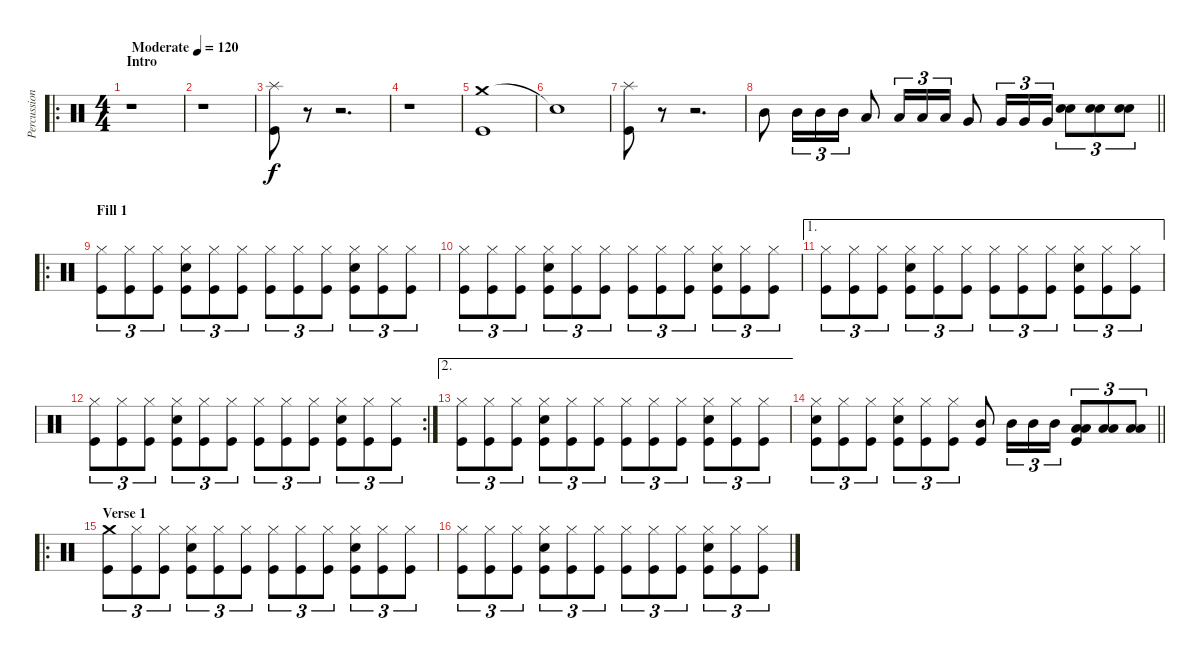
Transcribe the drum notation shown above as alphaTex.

\track ("Percussion" "Percussion") {instrument percussion}
\staff {score}
\articulation defaults
\ro
\ts (4 4)
\section ("" "Intro")
\tempo (120 "Moderate")
\clef neutral
\ks c
r.1{dy f} |
r.1 |
("Splash (hit)" "Kick (hit)").8 r.8 r.2{d} |
r.1 |
("Crash medium (hit)" "Kick (hit)").1 |
"Snare (hit)"{t}.1 |
("Splash (hit)" "Kick (hit)").8 r.8 r.2{d} |
\barLineRight lightlight "Mid Tom (hit)".8 "Mid Tom (hit)".16{tu (3 2)} "Mid Tom (hit)".16{tu (3 2)} "Mid Tom (hit)".16{tu (3 2)} "Low Tom (hit)".8 "Low Tom (hit)".16{tu (3 2)} "Low Tom (hit)".16{tu (3 2)} "Low Tom (hit)".16{tu (3 2)} "Very Low Tom (hit)".8 "Very Low Tom (hit)".16{tu (3 2)} "Very Low Tom (hit)".16{tu (3 2)} "Very Low Tom (hit)".16{tu (3 2)}
("Snare (hit) 2" "Snare (hit) 2").8{tu (3 2)} ("Snare (hit) 2" "Snare (hit) 2").8{tu (3 2)} ("Snare (hit) 2" "Snare (hit) 2").8{tu (3 2)} |
\ro
\section ("" "Fill 1")
("Hi-Hat (closed)" "Kick (hit)").8{tu (3 2)} ("Hi-Hat (closed)" "Kick (hit)").8{tu (3 2)} ("Hi-Hat (closed)" "Kick (hit)").8{tu (3 2)} ("Hi-Hat (closed)" "Snare (hit) 2" "Kick (hit)").8{tu (3 2)} ("Hi-Hat (closed)" "Kick (hit)").8{tu (3 2)} ("Hi-Hat (closed)" "Kick (hit)").8{tu (3 2)} ("Hi-Hat (closed)" "Kick (hit)").8{tu (3 2)} ("Hi-Hat (closed)" "Kick (hit)").8{tu (3 2)} ("Hi-Hat (closed)" "Kick (hit)").8{tu (3 2)} ("Hi-Hat (closed)" "Snare (hit) 2" "Kick (hit)").8{tu (3 2)} ("Hi-Hat (closed)" "Kick (hit)").8{tu (3 2)} ("Hi-Hat (closed)" "Kick (hit)").8{tu (3 2)} |
("Hi-Hat (closed)" "Kick (hit)").8{tu (3 2)} ("Hi-Hat (closed)" "Kick (hit)").8{tu (3 2)} ("Hi-Hat (closed)" "Kick (hit)").8{tu (3 2)} ("Hi-Hat (closed)" "Snare (hit) 2" "Kick (hit)").8{tu (3 2)} ("Hi-Hat (closed)" "Kick (hit)").8{tu (3 2)} ("Hi-Hat (closed)" "Kick (hit)").8{tu (3 2)} ("Hi-Hat (closed)" "Kick (hit)").8{tu (3 2)} ("Hi-Hat (closed)" "Kick (hit)").8{tu (3 2)} ("Hi-Hat (closed)" "Kick (hit)").8{tu (3 2)} ("Hi-Hat (closed)" "Snare (hit) 2" "Kick (hit)").8{tu (3 2)} ("Hi-Hat (closed)" "Kick (hit)").8{tu (3 2)} ("Hi-Hat (closed)" "Kick (hit)").8{tu (3 2)} |
\ae 1
("Hi-Hat (closed)" "Kick (hit)").8{tu (3 2)} ("Hi-Hat (closed)" "Kick (hit)").8{tu (3 2)} ("Hi-Hat (closed)" "Kick (hit)").8{tu (3 2)} ("Hi-Hat (closed)" "Snare (hit) 2" "Kick (hit)").8{tu (3 2)} ("Hi-Hat (closed)" "Kick (hit)").8{tu (3 2)} ("Hi-Hat (closed)" "Kick (hit)").8{tu (3 2)} ("Hi-Hat (closed)" "Kick (hit)").8{tu (3 2)} ("Hi-Hat (closed)" "Kick (hit)").8{tu (3 2)} ("Hi-Hat (closed)" "Kick (hit)").8{tu (3 2)} ("Hi-Hat (closed)" "Snare (hit) 2" "Kick (hit)").8{tu (3 2)} ("Hi-Hat (closed)" "Kick (hit)").8{tu (3 2)} ("Hi-Hat (closed)" "Kick (hit)").8{tu (3 2)} |
\rc 2
("Hi-Hat (closed)" "Kick (hit)").8{tu (3 2)} ("Hi-Hat (closed)" "Kick (hit)").8{tu (3 2)} ("Hi-Hat (closed)" "Kick (hit)").8{tu (3 2)} ("Hi-Hat (closed)" "Snare (hit) 2" "Kick (hit)").8{tu (3 2)} ("Hi-Hat (closed)" "Kick (hit)").8{tu (3 2)} ("Hi-Hat (closed)" "Kick (hit)").8{tu (3 2)} ("Hi-Hat (closed)" "Kick (hit)").8{tu (3 2)} ("Hi-Hat (closed)" "Kick (hit)").8{tu (3 2)} ("Hi-Hat (closed)" "Kick (hit)").8{tu (3 2)} ("Hi-Hat (closed)" "Snare (hit) 2" "Kick (hit)").8{tu (3 2)} ("Hi-Hat (closed)" "Kick (hit)").8{tu (3 2)} ("Hi-Hat (closed)" "Kick (hit)").8{tu (3 2)} |
\ae 2
("Hi-Hat (closed)" "Kick (hit)").8{tu (3 2)} ("Hi-Hat (closed)" "Kick (hit)").8{tu (3 2)} ("Hi-Hat (closed)" "Kick (hit)").8{tu (3 2)} ("Hi-Hat (closed)" "Snare (hit) 2" "Kick (hit)").8{tu (3 2)} ("Hi-Hat (closed)" "Kick (hit)").8{tu (3 2)} ("Hi-Hat (closed)" "Kick (hit)").8{tu (3 2)} ("Hi-Hat (closed)" "Kick (hit)").8{tu (3 2)} ("Hi-Hat (closed)" "Kick (hit)").8{tu (3 2)} ("Hi-Hat (closed)" "Kick (hit)").8{tu (3 2)} ("Hi-Hat (closed)" "Snare (hit) 2" "Kick (hit)").8{tu (3 2)} ("Hi-Hat (closed)" "Kick (hit)").8{tu (3 2)} ("Hi-Hat (closed)" "Kick (hit)").8{tu (3 2)} |
\barLineRight lightlight
("Hi-Hat (closed)" "Snare (hit) 2" "Kick (hit)").8{tu (3 2)} ("Hi-Hat (closed)" "Kick (hit)").8{tu (3 2)} ("Hi-Hat (closed)" "Kick (hit)").8{tu (3 2)} ("Hi-Hat (closed)" "Snare (hit) 2" "Kick (hit)").8{tu (3 2)} ("Hi-Hat (closed)" "Kick (hit)").8{tu (3 2)} ("Hi-Hat (closed)" "Kick (hit)").8{tu (3 2)} ("Mid Tom (hit)" "Kick (hit)").8 "Mid Tom (hit)".16{tu (3 2)} "Mid Tom (hit)".16{tu (3 2)} "Mid Tom (hit)".16{tu (3 2)} ("Low Tom (hit)" "Low Tom (hit)" "Kick (hit)").8{tu (3 2)} ("Low Tom (hit)" "Low Tom (hit)").8{tu (3 2)} ("Low Tom (hit)" "Low Tom (hit)").8{tu (3 2)} |
\ro
\section ("" "Verse 1")
("Crash medium (hit)" "Kick (hit)").8{tu (3 2)} ("Hi-Hat (closed)" "Kick (hit)").8{tu (3 2)} ("Hi-Hat (closed)" "Kick (hit)").8{tu (3 2)} ("Hi-Hat (closed)" "Snare (hit) 2" "Kick (hit)").8{tu (3 2)} ("Hi-Hat (closed)" "Kick (hit)").8{tu (3 2)} ("Hi-Hat (closed)" "Kick (hit)").8{tu (3 2)} ("Hi-Hat (closed)" "Kick (hit)").8{tu (3 2)} ("Hi-Hat (closed)" "Kick (hit)").8{tu (3 2)} ("Hi-Hat (closed)" "Kick (hit)").8{tu (3 2)} ("Hi-Hat (closed)" "Snare (hit) 2" "Kick (hit)").8{tu (3 2)} ("Hi-Hat (closed)" "Kick (hit)").8{tu (3 2)} ("Hi-Hat (closed)" "Kick (hit)").8{tu (3 2)} |
("Hi-Hat (closed)" "Kick (hit)").8{tu (3 2)} ("Hi-Hat (closed)" "Kick (hit)").8{tu (3 2)} ("Hi-Hat (closed)" "Kick (hit)").8{tu (3 2)} ("Hi-Hat (closed)" "Snare (hit) 2" "Kick (hit)").8{tu (3 2)} ("Hi-Hat (closed)" "Kick (hit)").8{tu (3 2)} ("Hi-Hat (closed)" "Kick (hit)").8{tu (3 2)} ("Hi-Hat (closed)" "Kick (hit)").8{tu (3 2)} ("Hi-Hat (closed)" "Kick (hit)").8{tu (3 2)} ("Hi-Hat (closed)" "Kick (hit)").8{tu (3 2)} ("Hi-Hat (closed)" "Snare (hit) 2" "Kick (hit)").8{tu (3 2)} ("Hi-Hat (closed)" "Kick (hit)").8{tu (3 2)} ("Hi-Hat (closed)" "Kick (hit)").8{tu (3 2)}
